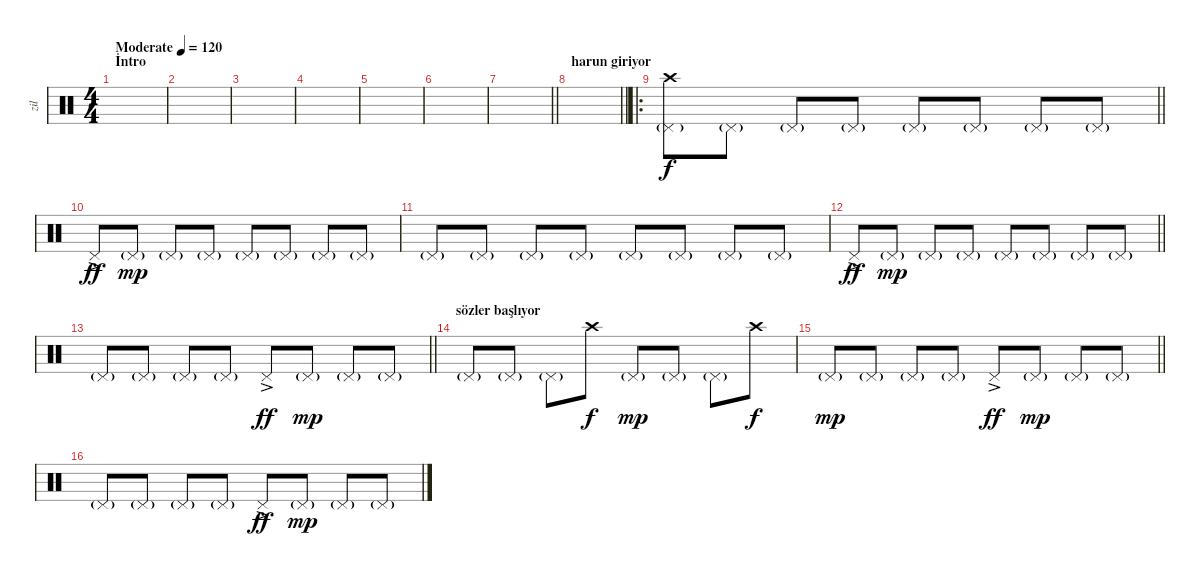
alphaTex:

\track ("zil" "zil") {instrument percussion}
\staff {score}
\articulation defaults
\ts (4 4)
\section ("" "İntro")
\tempo (120 "Moderate")
\clef neutral
\ks c
|
|
|
|
|
|
\barLineRight lightlight
|
\section ("" "harun giriyor")
\barLineRight lightlight
|
\ro
\barLineRight lightlight
("Crash high (hit)" "Pedal Hi-Hat (hit)"{g}).8 "Pedal Hi-Hat (hit)"{g}.8 "Pedal Hi-Hat (hit)"{g}.8 "Pedal Hi-Hat (hit)"{g}.8 "Pedal Hi-Hat (hit)"{g}.8 "Pedal Hi-Hat (hit)"{g}.8 "Pedal Hi-Hat (hit)"{g}.8 "Pedal Hi-Hat (hit)"{g}.8 |
"Pedal Hi-Hat (hit)"{ac}.8{dy ff} "Pedal Hi-Hat (hit)"{g}.8{dy mp} "Pedal Hi-Hat (hit)"{g}.8 "Pedal Hi-Hat (hit)"{g}.8 "Pedal Hi-Hat (hit)"{g}.8 "Pedal Hi-Hat (hit)"{g}.8 "Pedal Hi-Hat (hit)"{g}.8 "Pedal Hi-Hat (hit)"{g}.8 |
"Pedal Hi-Hat (hit)"{g}.8 "Pedal Hi-Hat (hit)"{g}.8 "Pedal Hi-Hat (hit)"{g}.8 "Pedal Hi-Hat (hit)"{g}.8 "Pedal Hi-Hat (hit)"{g}.8 "Pedal Hi-Hat (hit)"{g}.8 "Pedal Hi-Hat (hit)"{g}.8 "Pedal Hi-Hat (hit)"{g}.8 |
\barLineRight lightlight "Pedal Hi-Hat (hit)"{ac}.8{dy ff} "Pedal Hi-Hat (hit)"{g}.8{dy mp} "Pedal Hi-Hat (hit)"{g}.8 "Pedal Hi-Hat (hit)"{g}.8 "Pedal Hi-Hat (hit)"{g}.8 "Pedal Hi-Hat (hit)"{g}.8 "Pedal Hi-Hat (hit)"{g}.8 "Pedal Hi-Hat (hit)"{g}.8
|
\barLineRight lightlight "Pedal Hi-Hat (hit)"{g}.8 "Pedal Hi-Hat (hit)"{g}.8 "Pedal Hi-Hat (hit)"{g}.8 "Pedal Hi-Hat (hit)"{g}.8 "Pedal Hi-Hat (hit)"{ac}.8{dy ff} "Pedal Hi-Hat (hit)"{g}.8{dy mp} "Pedal Hi-Hat (hit)"{g}.8 "Pedal Hi-Hat (hit)"{g}.8
|
\section ("" "sözler başlıyor")
"Pedal Hi-Hat (hit)"{g}.8 "Pedal Hi-Hat (hit)"{g}.8 "Pedal Hi-Hat (hit)"{g}.8 "Crash high (hit)".8{dy f} "Pedal Hi-Hat (hit)"{g}.8{dy mp} "Pedal Hi-Hat (hit)"{g}.8 "Pedal Hi-Hat (hit)"{g}.8 "Crash high (hit)".8{dy f} |
\barLineRight lightlight "Pedal Hi-Hat (hit)"{g}.8{dy mp} "Pedal Hi-Hat (hit)"{g}.8 "Pedal Hi-Hat (hit)"{g}.8 "Pedal Hi-Hat (hit)"{g}.8 "Pedal Hi-Hat (hit)"{ac}.8{dy ff} "Pedal Hi-Hat (hit)"{g}.8{dy mp} "Pedal Hi-Hat (hit)"{g}.8 "Pedal Hi-Hat (hit)"{g}.8
|
"Pedal Hi-Hat (hit)"{g}.8 "Pedal Hi-Hat (hit)"{g}.8 "Pedal Hi-Hat (hit)"{g}.8 "Pedal Hi-Hat (hit)"{g}.8 "Pedal Hi-Hat (hit)"{ac}.8{dy ff} "Pedal Hi-Hat (hit)"{g}.8{dy mp} "Pedal Hi-Hat (hit)"{g}.8 "Pedal Hi-Hat (hit)"{g}.8
